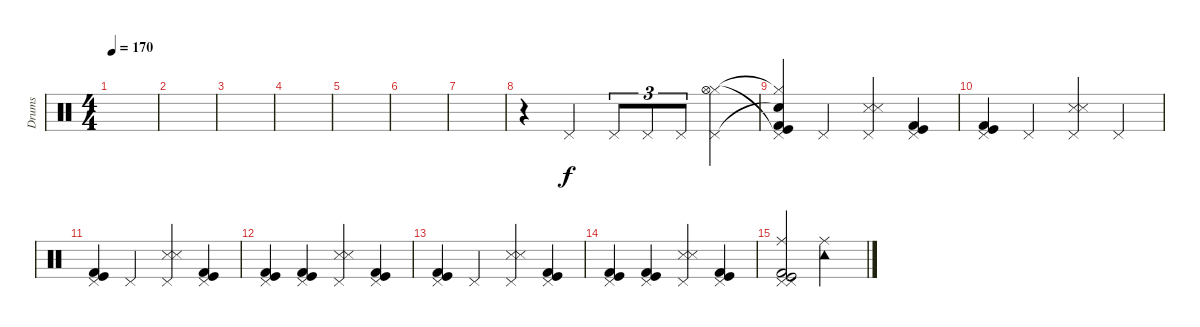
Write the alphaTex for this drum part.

\track ("Drums" "Drums") {instrument percussion}
\staff {score}
\articulation defaults
\ts (4 4)
\tempo 170
\clef neutral
\ks c
|
|
|
|
|
|
|
r.4 "Pedal Hi-Hat (hit)".4 "Pedal Hi-Hat (hit)".8{tu (3 2)} "Pedal Hi-Hat (hit)".8{tu (3 2)} "Pedal Hi-Hat (hit)".8{tu (3 2)} ("Pedal Hi-Hat (hit)" "Hi-Hat (closed)" "Hi-Hat (open)").4 |
("Snare (hit)"{t} "Hi-Hat (closed)"{t} "Pedal Hi-Hat (hit)"{t} "Kick (hit)" "Kick (hit) 2").4 "Pedal Hi-Hat (hit)".4 ("Pedal Hi-Hat (hit)" "Snare (side stick) 3" "Snare (side stick) 3").4 ("Pedal Hi-Hat (hit)" "Kick (hit)" "Kick (hit) 2").4 |
("Pedal Hi-Hat (hit)" "Kick (hit)" "Kick (hit) 2").4 "Pedal Hi-Hat (hit)".4 ("Pedal Hi-Hat (hit)" "Snare (side stick) 3" "Snare (side stick) 3").4 "Pedal Hi-Hat (hit)".4 |
("Pedal Hi-Hat (hit)" "Kick (hit)" "Kick (hit) 2").4 "Pedal Hi-Hat (hit)".4 ("Pedal Hi-Hat (hit)" "Snare (side stick) 3" "Snare (side stick) 3").4 ("Pedal Hi-Hat (hit)" "Kick (hit)" "Kick (hit) 2").4 |
("Pedal Hi-Hat (hit)" "Kick (hit)" "Kick (hit) 2").4 ("Pedal Hi-Hat (hit)" "Kick (hit)" "Kick (hit) 2").4 ("Pedal Hi-Hat (hit)" "Snare (side stick) 3" "Snare (side stick) 3").4 ("Pedal Hi-Hat (hit)" "Kick (hit)" "Kick (hit) 2").4 |
("Pedal Hi-Hat (hit)" "Kick (hit)" "Kick (hit) 2").4 "Pedal Hi-Hat (hit)".4 ("Pedal Hi-Hat (hit)" "Snare (side stick) 3" "Snare (side stick) 3").4 ("Pedal Hi-Hat (hit)" "Kick (hit)" "Kick (hit) 2").4 |
("Pedal Hi-Hat (hit)" "Kick (hit)" "Kick (hit) 2").4 ("Pedal Hi-Hat (hit)" "Kick (hit)" "Kick (hit) 2").4 ("Pedal Hi-Hat (hit)" "Snare (side stick) 3" "Snare (side stick) 3").4 ("Pedal Hi-Hat (hit)" "Kick (hit)" "Kick (hit) 2").4 |
("Pedal Hi-Hat (hit)" "Pedal Hi-Hat (hit)" "Ride (middle)" "Kick (hit)" "Kick (hit) 2").2 ("Tambourine (hit)" "Ride (middle)").2
